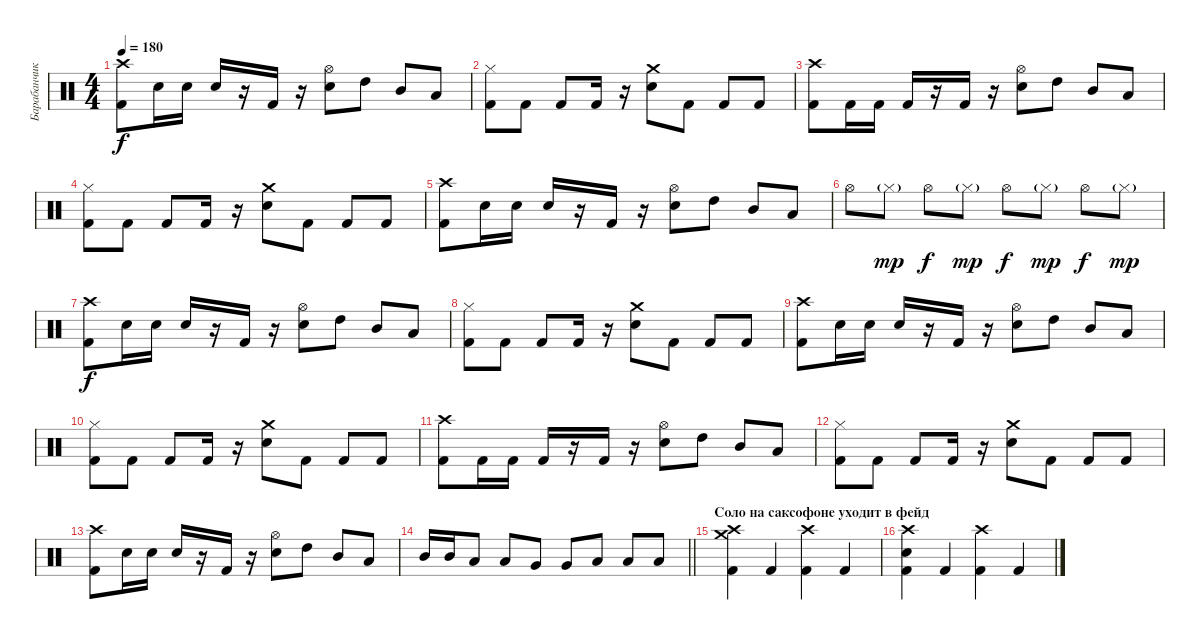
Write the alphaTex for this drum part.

\track ("Барабанчики" "Барабанчик") {instrument percussion}
\staff {score}
\articulation defaults
\ts (4 4)
\tempo 180
\clef neutral
\ks c
("Crash high (hit)" "Kick (hit) 2").8{dy f} "Electric Snare (hit)".16 "Electric Snare (hit)".16 "Electric Snare (hit)".16 r.16 "Kick (hit) 2".16 r.16 ("Hi-Hat (open)" "Electric Snare (hit)").8 "High Tom (hit)".8 "Mid Tom (hit)".8 "Low Tom (hit)".8 |
("Hi-Hat (closed)" "Kick (hit) 2").8 "Kick (hit) 2".8 "Kick (hit) 2".8 "Kick (hit) 2".16 r.16 ("Crash medium (hit)" "Electric Snare (hit)").8 "Kick (hit) 2".8 "Kick (hit) 2".8 "Kick (hit) 2".8 |
("Crash high (hit)" "Kick (hit) 2").8 "Kick (hit) 2".16 "Kick (hit) 2".16 "Kick (hit) 2".16 r.16 "Kick (hit) 2".16 r.16 ("Hi-Hat (open)" "Electric Snare (hit)").8 "High Tom (hit)".8 "Mid Tom (hit)".8 "Low Tom (hit)".8 |
("Hi-Hat (closed)" "Kick (hit) 2").8 "Kick (hit) 2".8 "Kick (hit) 2".8 "Kick (hit) 2".16 r.16 ("Crash medium (hit)" "Electric Snare (hit)").8 "Kick (hit) 2".8 "Kick (hit) 2".8 "Kick (hit) 2".8 |
("Crash high (hit)" "Kick (hit) 2").8 "Electric Snare (hit)".16 "Electric Snare (hit)".16 "Electric Snare (hit)".16 r.16 "Kick (hit) 2".16 r.16 ("Hi-Hat (open)" "Electric Snare (hit)").8 "High Tom (hit)".8 "Mid Tom (hit)".8 "Low Tom (hit)".8 |
"Hi-Hat (open)".8 "Hi-Hat (closed)"{g}.8{dy mp} "Hi-Hat (open)".8{dy f} "Hi-Hat (closed)"{g}.8{dy mp} "Hi-Hat (open)".8{dy f} "Hi-Hat (closed)"{g}.8{dy mp} "Hi-Hat (open)".8{dy f} "Hi-Hat (closed)"{g}.8{dy mp} |
("Crash high (hit)" "Kick (hit) 2").8{dy f} "Electric Snare (hit)".16 "Electric Snare (hit)".16 "Electric Snare (hit)".16 r.16 "Kick (hit) 2".16 r.16 ("Hi-Hat (open)" "Electric Snare (hit)").8 "High Tom (hit)".8 "Mid Tom (hit)".8 "Low Tom (hit)".8 |
("Hi-Hat (closed)" "Kick (hit) 2").8 "Kick (hit) 2".8 "Kick (hit) 2".8 "Kick (hit) 2".16 r.16 ("Crash medium (hit)" "Electric Snare (hit)").8 "Kick (hit) 2".8 "Kick (hit) 2".8 "Kick (hit) 2".8 |
("Crash high (hit)" "Kick (hit) 2").8 "Electric Snare (hit)".16 "Electric Snare (hit)".16 "Electric Snare (hit)".16 r.16 "Kick (hit) 2".16 r.16 ("Hi-Hat (open)" "Electric Snare (hit)").8 "High Tom (hit)".8 "Mid Tom (hit)".8 "Low Tom (hit)".8 |
("Hi-Hat (closed)" "Kick (hit) 2").8 "Kick (hit) 2".8 "Kick (hit) 2".8 "Kick (hit) 2".16 r.16 ("Crash medium (hit)" "Electric Snare (hit)").8 "Kick (hit) 2".8 "Kick (hit) 2".8 "Kick (hit) 2".8 |
("Crash high (hit)" "Kick (hit) 2").8 "Kick (hit) 2".16 "Kick (hit) 2".16 "Kick (hit) 2".16 r.16 "Kick (hit) 2".16 r.16 ("Hi-Hat (open)" "Electric Snare (hit)").8 "High Tom (hit)".8 "Mid Tom (hit)".8 "Low Tom (hit)".8 |
("Hi-Hat (closed)" "Kick (hit) 2").8 "Kick (hit) 2".8 "Kick (hit) 2".8 "Kick (hit) 2".16 r.16 ("Crash medium (hit)" "Electric Snare (hit)").8 "Kick (hit) 2".8 "Kick (hit) 2".8 "Kick (hit) 2".8 |
("Crash high (hit)" "Kick (hit) 2").8 "Electric Snare (hit)".16 "Electric Snare (hit)".16 "Electric Snare (hit)".16 r.16 "Kick (hit) 2".16 r.16 ("Hi-Hat (open)" "Electric Snare (hit)").8 "High Tom (hit)".8 "Mid Tom (hit)".8 "Low Tom (hit)".8 |
\barLineRight lightlight "Mid Tom (hit)".16 "Mid Tom (hit)".16 "Low Tom (hit)".8 "Low Tom (hit)".8 "Very Low Tom (hit)".8 "Very Low Tom (hit)".8 "Low Floor Tom (hit)".8 "Low Floor Tom (hit)".8 "Low Floor Tom (hit)".8
|
\section ("" "Соло на саксофоне уходит в фейд")
("Crash medium (hit)" "Crash high (hit)" "Kick (hit) 2").4 "Kick (hit) 2".4 ("Crash high (hit)" "Kick (hit) 2").4 "Kick (hit) 2".4 |
("Crash high (hit)" "Electric Snare (hit)" "Kick (hit) 2").4 "Kick (hit) 2".4 ("Crash high (hit)" "Kick (hit) 2").4 "Kick (hit) 2".4
